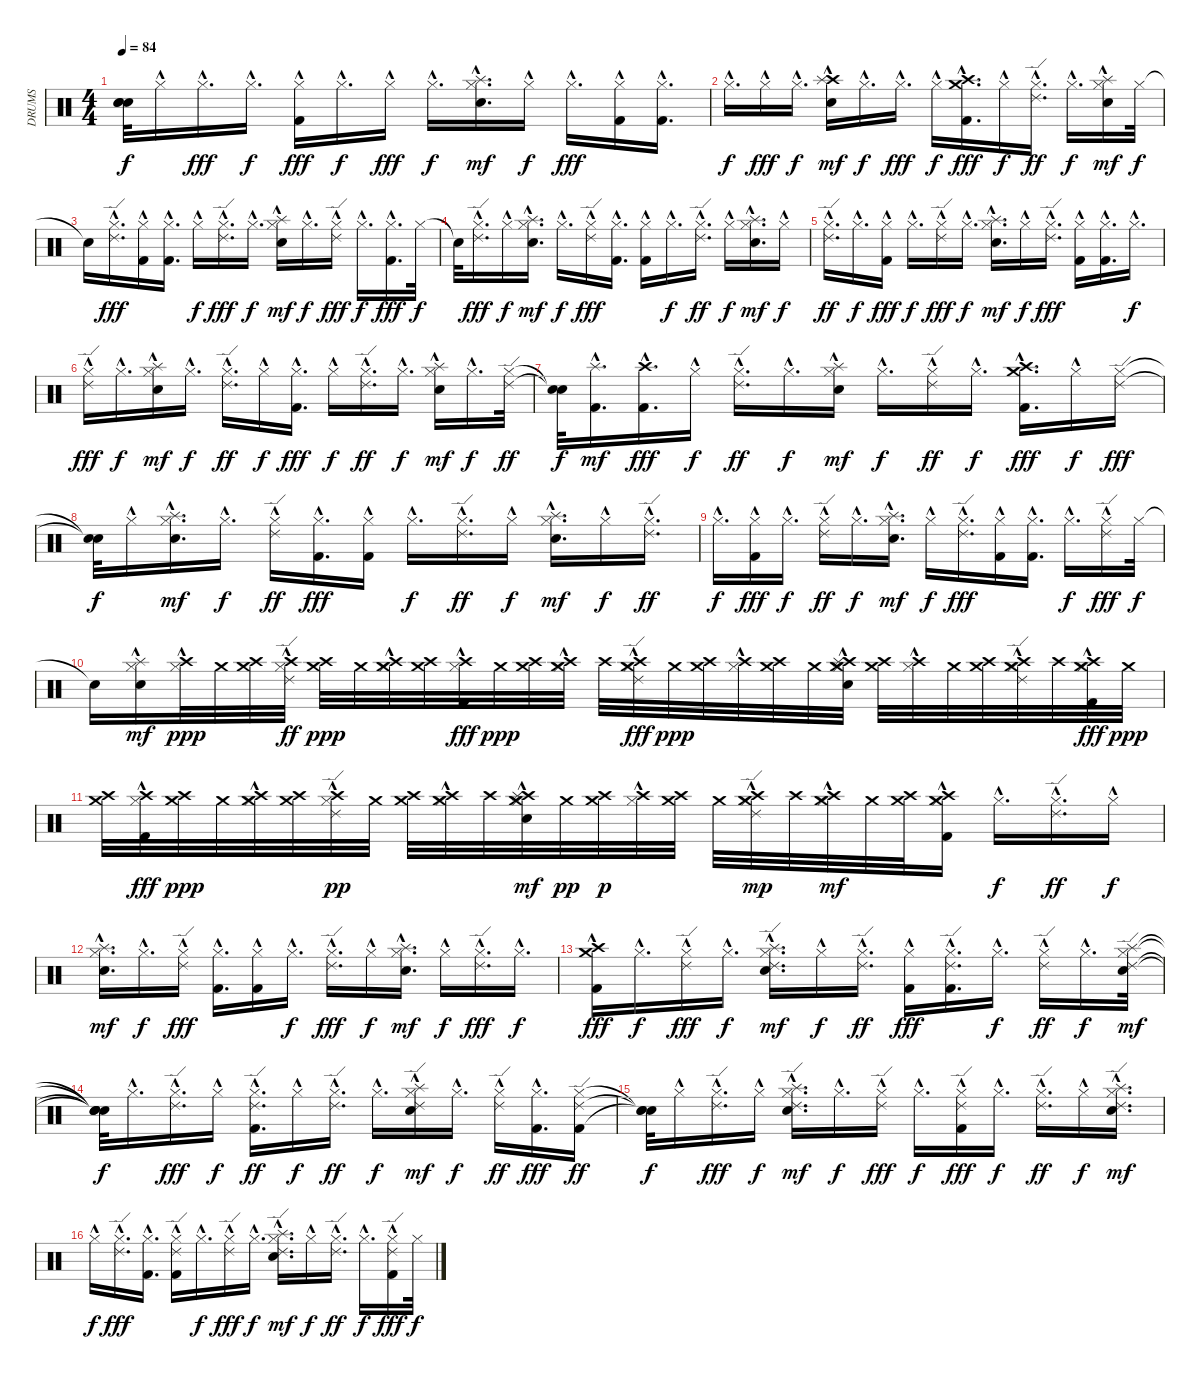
\track ("DRUMS" "DRUMS") {instrument percussion}
\staff {score}
\articulation defaults
\ts (4 4)
\tempo 84
\clef neutral
\ks c
("Snare (hit)"{t} "Snare (hit)"{t} "Snare (hit)"{t}).32{dy f} "Hi-Hat (closed)"{hac}.16 "Hi-Hat (closed)"{hac}.16{d dy fff} "Hi-Hat (closed)"{hac}.16{d dy f} ("Hi-Hat (closed)"{hac} "Kick (hit) 2"{hac}).16{dy fff} "Hi-Hat (closed)"{hac}.16{d dy f} "Hi-Hat (closed)"{hac}.16{dy fff} "Hi-Hat (closed)"{hac}.16{d dy f} ("Hi-Hat (closed)"{hac} "Snare (hit) 2"{hac} "Splash (hit)"{hac}).16{d dy mf} "Hi-Hat (closed)"{hac}.16{dy f} "Hi-Hat (closed)"{hac}.16{d dy fff} ("Kick (hit) 2"{hac} "Hi-Hat (closed)"{hac}).16 ("Hi-Hat (closed)"{hac} "Kick (hit) 2"{hac}).16{d} |
"Hi-Hat (closed)"{hac}.16{d dy f} "Hi-Hat (closed)"{hac}.16{dy fff} "Hi-Hat (closed)"{hac}.16{d dy f} ("Crash high (hit)" "Snare (hit) 2"{hac} "Splash (hit)"{hac}).16{dy mf} "Hi-Hat (closed)"{hac}.16{d dy f} "Hi-Hat (closed)"{hac}.16{d dy fff} "Hi-Hat (closed)"{hac}.16{dy f} ("Crash medium (hit)" "Crash high (hit)" "Kick (hit) 2"{hac}).16{d dy fff} "Hi-Hat (closed)"{hac}.16{dy f} ("Hi-Hat (closed)"{hac} "Ride (edge) 2"{hac}).16{d dy ff} "Hi-Hat (closed)"{hac}.16{d dy f} ("Snare (hit) 2"{hac} "Hi-Hat (closed)"{hac} "Splash (hit)"{hac}).16{dy mf} "Hi-Hat (closed)".32{dy f} |
"Snare (hit)"{t}.16 ("Ride (edge) 2"{hac} "Hi-Hat (closed)"{hac}).16{d dy fff} ("Hi-Hat (closed)"{hac} "Kick (hit) 2"{hac}).16 ("Hi-Hat (closed)"{hac} "Kick (hit) 2"{hac}).16{d} "Hi-Hat (closed)"{hac}.16{dy f} ("Ride (edge) 2"{hac} "Hi-Hat (closed)"{hac}).16{d dy fff} "Hi-Hat (closed)"{hac}.16{d dy f} ("Snare (hit) 2"{hac} "Hi-Hat (closed)"{hac} "Splash (hit)"{hac}).16{dy mf} "Hi-Hat (closed)"{hac}.16{d dy f} ("Ride (edge) 2"{hac} "Hi-Hat (closed)"{hac}).16{dy fff} "Hi-Hat (closed)"{hac}.16{d dy f} ("Hi-Hat (closed)"{hac} "Kick (hit) 2"{hac}).16{d dy fff} "Hi-Hat (closed)".32{dy f} |
"Snare (hit)"{t}.32 ("Ride (edge) 2"{hac} "Hi-Hat (closed)"{hac}).16{d dy fff} "Hi-Hat (closed)"{hac}.16{dy f} ("Snare (hit) 2"{hac} "Hi-Hat (closed)"{hac} "Splash (hit)"{hac}).16{d dy mf} "Hi-Hat (closed)"{hac}.16{d dy f} ("Ride (edge) 2"{hac} "Hi-Hat (closed)"{hac}).16{dy fff} ("Kick (hit) 2"{hac} "Hi-Hat (closed)"{hac}).16{d} ("Hi-Hat (closed)"{hac} "Kick (hit) 2"{hac}).16 "Hi-Hat (closed)"{hac}.16{d dy f} ("Hi-Hat (closed)"{hac} "Ride (edge) 2"{hac}).16{d dy ff} "Hi-Hat (closed)"{hac}.16{dy f} ("Hi-Hat (closed)"{hac} "Snare (hit) 2"{hac} "Splash (hit)"{hac}).16{d dy mf} "Hi-Hat (closed)"{hac}.16{dy f} |
("Hi-Hat (closed)"{hac} "Ride (edge) 2"{hac}).16{d dy ff} "Hi-Hat (closed)"{hac}.16{d dy f} ("Hi-Hat (closed)"{hac} "Kick (hit) 2"{hac}).16{dy fff} "Hi-Hat (closed)"{hac}.16{d dy f} ("Ride (edge) 2"{hac} "Hi-Hat (closed)"{hac}).16{dy fff} "Hi-Hat (closed)"{hac}.16{d dy f} ("Snare (hit) 2"{hac} "Hi-Hat (closed)"{hac} "Splash (hit)"{hac}).16{d dy mf} "Hi-Hat (closed)"{hac}.16{dy f} ("Ride (edge) 2"{hac} "Hi-Hat (closed)"{hac}).16{d dy fff} ("Hi-Hat (closed)"{hac} "Kick (hit) 2"{hac}).16 ("Hi-Hat (closed)"{hac} "Kick (hit) 2"{hac}).16{d} "Hi-Hat (closed)"{hac}.16{d dy f} |
("Ride (edge) 2"{hac} "Hi-Hat (closed)"{hac}).16{dy fff} "Hi-Hat (closed)"{hac}.16{d dy f} ("Hi-Hat (closed)"{hac} "Snare (hit) 2"{hac} "Splash (hit)"{hac}).16{dy mf} "Hi-Hat (closed)"{hac}.16{d dy f} ("Hi-Hat (closed)"{hac} "Ride (edge) 2"{hac}).16{d dy ff} "Hi-Hat (closed)"{hac}.16{dy f} ("Hi-Hat (closed)"{hac} "Kick (hit) 2"{hac}).16{d dy fff} "Hi-Hat (closed)"{hac}.16{dy f} ("Hi-Hat (closed)"{hac} "Ride (edge) 2"{hac}).16{d dy ff} "Hi-Hat (closed)"{hac}.16{d dy f} ("Hi-Hat (closed)"{hac} "Snare (hit) 2"{hac} "Splash (hit)"{hac}).16{dy mf} "Hi-Hat (closed)"{hac}.16{d dy f} ("Hi-Hat (closed)" "Ride (edge) 2").32{dy ff} |
("Snare (hit)"{t} "Snare (hit)"{t}).32{dy f} ("Kick (hit) 2"{hac} "Splash (hit)"{hac}).16{d dy mf} ("Crash high (hit)"{hac} "Kick (hit) 2"{hac}).16{d dy fff} "Hi-Hat (closed)"{hac}.16{dy f} ("Hi-Hat (closed)"{hac} "Ride (edge) 2"{hac}).16{d dy ff} "Hi-Hat (closed)"{hac}.16{d dy f} ("Snare (hit) 2"{hac} "Hi-Hat (closed)"{hac} "Splash (hit)"{hac}).16{dy mf} "Hi-Hat (closed)"{hac}.16{d dy f} ("Hi-Hat (closed)"{hac} "Ride (edge) 2"{hac}).16{dy ff} "Hi-Hat (closed)"{hac}.16{d dy f} ("Crash high (hit)" "Kick (hit) 2"{hac} "Crash medium (hit)").16{d dy fff} "Hi-Hat (closed)"{hac}.16{dy f} ("Ride (edge) 2" "Hi-Hat (closed)").16{dy fff} |
("Snare (hit)"{t} "Snare (hit)"{t}).32{dy f} "Hi-Hat (closed)"{hac}.16 ("Snare (hit) 2"{hac} "Hi-Hat (closed)"{hac} "Splash (hit)"{hac}).16{d dy mf} "Hi-Hat (closed)"{hac}.16{d dy f} ("Hi-Hat (closed)"{hac} "Ride (edge) 2"{hac}).16{dy ff} ("Kick (hit) 2"{hac} "Hi-Hat (closed)"{hac}).16{d dy fff} ("Kick (hit) 2"{hac} "Hi-Hat (closed)"{hac}).16 "Hi-Hat (closed)"{hac}.16{d dy f} ("Hi-Hat (closed)"{hac} "Ride (edge) 2"{hac}).16{d dy ff} "Hi-Hat (closed)"{hac}.16{dy f} ("Hi-Hat (closed)"{hac} "Snare (hit) 2"{hac} "Splash (hit)"{hac}).16{d dy mf} "Hi-Hat (closed)"{hac}.16{dy f} ("Hi-Hat (closed)"{hac} "Ride (edge) 2"{hac}).16{d dy ff} |
"Hi-Hat (closed)"{hac}.16{d dy f} ("Hi-Hat (closed)"{hac} "Kick (hit) 2"{hac}).16{dy fff} "Hi-Hat (closed)"{hac}.16{d dy f} ("Hi-Hat (closed)"{hac} "Ride (edge) 2"{hac}).16{dy ff} "Hi-Hat (closed)"{hac}.16{d dy f} ("Hi-Hat (closed)"{hac} "Snare (hit) 2"{hac} "Splash (hit)"{hac}).16{d dy mf} "Hi-Hat (closed)"{hac}.16{dy f} ("Ride (edge) 2"{hac} "Hi-Hat (closed)"{hac}).16{d dy fff} ("Hi-Hat (closed)"{hac} "Kick (hit) 2"{hac}).16 ("Kick (hit) 2"{hac} "Hi-Hat (closed)"{hac}).16{d} "Hi-Hat (closed)"{hac}.16{d dy f} ("Ride (edge) 2"{hac} "Hi-Hat (closed)"{hac}).16{dy fff} "Hi-Hat (closed)".32{dy f} |
"Snare (hit)"{t}.16 ("Hi-Hat (closed)"{hac} "Snare (hit) 2"{hac} "Splash (hit)"{hac}).16{dy mf} ("Hi-Hat (closed)"{hac} "Crash high (hit)").32{dy ppp} "Crash medium (hit)".32 ("Crash high (hit)" "Crash medium (hit)").32 ("Crash high (hit)" "Hi-Hat (closed)"{hac} "Ride (edge) 2"{hac}).32{dy ff} ("Crash medium (hit)" "Crash high (hit)").32{dy ppp} "Crash medium (hit)".32 ("Crash high (hit)" "Hi-Hat (closed)"{hac} "Crash medium (hit)").32 ("Crash high (hit)" "Crash medium (hit)").32 ("Crash high (hit)" "Kick (hit) 2"{hac} "Hi-Hat (closed)"{hac}).32{dy fff} "Crash medium (hit)".32{dy ppp} ("Crash high (hit)" "Crash medium (hit)").32 ("Crash high (hit)" "Hi-Hat (closed)"{hac} "Crash medium (hit)").32 "Crash high (hit)".32 ("Crash medium (hit)" "Ride (edge) 2"{hac} "Crash high (hit)" "Hi-Hat (closed)"{hac}).32{dy fff} "Crash medium (hit)".32{dy ppp} ("Crash high (hit)" "Crash medium (hit)").32 ("Hi-Hat (closed)"{hac} "Crash high (hit)").32 ("Crash medium (hit)" "Crash high (hit)").32 "Crash medium (hit)".32 ("Snare (hit) 2"{hac} "Hi-Hat (closed)"{hac} "Crash high (hit)" "Splash (hit)"{hac} "Crash medium (hit)").32 ("Crash high (hit)" "Crash medium (hit)").32 ("Crash high (hit)" "Hi-Hat (closed)"{hac}).32 "Crash medium (hit)".32 ("Crash high (hit)" "Crash medium (hit)").32 ("Crash high (hit)" "Ride (edge) 2"{hac} "Hi-Hat (closed)"{hac} "Crash medium (hit)").32 "Crash high (hit)".32 ("Crash medium (hit)" "Crash high (hit)" "Kick (hit) 2"{hac} "Hi-Hat (closed)"{hac}).32{dy fff} "Crash medium (hit)".32{dy ppp} |
("Crash high (hit)" "Crash medium (hit)").32 ("Kick (hit) 2"{hac} "Crash high (hit)" "Hi-Hat (closed)"{hac}).32{dy fff} ("Crash medium (hit)" "Crash high (hit)").32{dy ppp} "Crash medium (hit)".32 ("Hi-Hat (closed)"{hac} "Crash high (hit)" "Crash medium (hit)").32 ("Crash high (hit)" "Crash medium (hit)").32 ("Ride (edge) 2"{hac} "Hi-Hat (closed)"{hac} "Crash high (hit)").32{dy pp} "Crash medium (hit)".32 ("Crash high (hit)" "Crash medium (hit)").32 ("Crash high (hit)" "Hi-Hat (closed)"{hac} "Crash medium (hit)").32 "Crash high (hit)".32 ("Crash medium (hit)" "Snare (hit) 2"{hac} "Hi-Hat (closed)"{hac} "Crash high (hit)" "Splash (hit)"{hac}).32{dy mf} "Crash medium (hit)".32{dy pp} ("Crash high (hit)" "Crash medium (hit)").32{dy p} ("Crash high (hit)" "Hi-Hat (closed)"{hac}).32 ("Crash medium (hit)" "Crash high (hit)").32 "Crash medium (hit)".32 ("Hi-Hat (closed)"{hac} "Ride (edge) 2"{hac} "Crash high (hit)" "Crash medium (hit)").32{dy mp} "Crash high (hit)".32 ("Crash medium (hit)" "Crash high (hit)" "Hi-Hat (closed)"{hac}).32{dy mf} "Crash medium (hit)".32 ("Crash high (hit)" "Crash medium (hit)").32 ("Hi-Hat (closed)"{hac} "Kick (hit) 2"{hac} "Crash high (hit)" "Crash medium (hit)"{hac}).16 "Hi-Hat (closed)"{hac}.16{d dy f} ("Hi-Hat (closed)"{hac} "Ride (edge) 2"{hac}).16{d dy ff} "Hi-Hat (closed)"{hac}.16{dy f} |
("Hi-Hat (closed)"{hac} "Snare (hit) 2"{hac} "Splash (hit)"{hac}).16{d dy mf} "Hi-Hat (closed)"{hac}.16{d dy f} ("Ride (edge) 2"{hac} "Hi-Hat (closed)"{hac}).16{dy fff} ("Hi-Hat (closed)"{hac} "Kick (hit) 2"{hac}).16{d} ("Hi-Hat (closed)"{hac} "Kick (hit) 2"{hac}).16 "Hi-Hat (closed)"{hac}.16{d dy f} ("Ride (edge) 2"{hac} "Hi-Hat (closed)"{hac}).16{d dy fff} "Hi-Hat (closed)"{hac}.16{dy f} ("Hi-Hat (closed)"{hac} "Snare (hit) 2"{hac} "Splash (hit)"{hac}).16{d dy mf} "Hi-Hat (closed)"{hac}.16{dy f} ("Ride (edge) 2"{hac} "Hi-Hat (closed)"{hac}).16{d dy fff} "Hi-Hat (closed)"{hac}.16{d dy f} |
("Crash high (hit)" "Crash medium (hit)" "Kick (hit) 2"{hac}).16{dy fff} "Hi-Hat (closed)"{hac}.16{d dy f} ("Ride (edge) 2"{hac} "Hi-Hat (closed)"{hac}).16{dy fff} "Hi-Hat (closed)"{hac}.16{d dy f} ("Ride (edge) 2"{hac} "Snare (hit) 2"{hac} "Hi-Hat (closed)"{hac} "Splash (hit)"{hac}).16{d dy mf} "Hi-Hat (closed)"{hac}.16{dy f} ("Hi-Hat (closed)"{hac} "Ride (edge) 2"{hac}).16{d dy ff} ("Hi-Hat (closed)"{hac} "Kick (hit) 2"{hac}).16{dy fff} ("Ride (edge) 2"{hac} "Kick (hit) 2"{hac} "Hi-Hat (closed)"{hac}).16{d} "Hi-Hat (closed)"{hac}.16{d dy f} ("Hi-Hat (closed)"{hac} "Ride (edge) 2"{hac}).16{dy ff} "Hi-Hat (closed)"{hac}.16{d dy f} ("Snare (hit) 2" "Hi-Hat (closed)" "Ride (edge) 2" "Splash (hit)").32{dy mf} |
("Snare (hit)"{t} "Snare (hit)"{t} "Snare (hit)"{t} "Snare (hit)"{t}).32{dy f} "Hi-Hat (closed)"{hac}.16{d} ("Ride (edge) 2"{hac} "Hi-Hat (closed)"{hac}).16{d dy fff} "Hi-Hat (closed)"{hac}.16{dy f} ("Hi-Hat (closed)"{hac} "Kick (hit) 2"{hac} "Ride (edge) 2"{hac}).16{d dy ff} "Hi-Hat (closed)"{hac}.16{dy f} ("Hi-Hat (closed)"{hac} "Ride (edge) 2"{hac}).16{d dy ff} "Hi-Hat (closed)"{hac}.16{d dy f} ("Snare (hit) 2"{hac} "Hi-Hat (closed)"{hac} "Ride (edge) 2"{hac} "Splash (hit)"{hac}).16{dy mf} "Hi-Hat (closed)"{hac}.16{d dy f} ("Hi-Hat (closed)"{hac} "Ride (edge) 2"{hac}).16{dy ff} ("Hi-Hat (closed)"{hac} "Kick (hit) 2"{hac}).16{d dy fff} ("Kick (hit) 2" "Hi-Hat (closed)" "Ride (edge) 2").16{dy ff} |
("Snare (hit)"{t} "Snare (hit)"{t} "Snare (hit)"{t}).32{dy f} "Hi-Hat (closed)"{hac}.16 ("Ride (edge) 2"{hac} "Hi-Hat (closed)"{hac}).16{d dy fff} "Hi-Hat (closed)"{hac}.16{dy f} ("Hi-Hat (closed)"{hac} "Ride (edge) 2"{hac} "Snare (hit) 2"{hac} "Splash (hit)"{hac}).16{d dy mf} "Hi-Hat (closed)"{hac}.16{d dy f} ("Ride (edge) 2"{hac} "Hi-Hat (closed)"{hac}).16{dy fff} "Hi-Hat (closed)"{hac}.16{d dy f} ("Kick (hit) 2"{hac} "Ride (edge) 2"{hac} "Hi-Hat (closed)"{hac}).16{dy fff} "Hi-Hat (closed)"{hac}.16{d dy f} ("Hi-Hat (closed)"{hac} "Ride (edge) 2"{hac}).16{d dy ff} "Hi-Hat (closed)"{hac}.16{dy f} ("Hi-Hat (closed)"{hac} "Ride (edge) 2"{hac} "Snare (hit) 2"{hac} "Splash (hit)"{hac}).16{d dy mf} |
"Hi-Hat (closed)"{hac}.16{dy f} ("Ride (edge) 2"{hac} "Hi-Hat (closed)"{hac}).16{d dy fff} ("Kick (hit) 2"{hac} "Hi-Hat (closed)"{hac}).16{d} ("Hi-Hat (closed)"{hac} "Ride (edge) 2"{hac} "Kick (hit) 2"{hac}).16 "Hi-Hat (closed)"{hac}.16{d dy f} ("Ride (edge) 2"{hac} "Hi-Hat (closed)"{hac}).16{dy fff} "Hi-Hat (closed)"{hac}.16{d dy f} ("Snare (hit) 2"{hac} "Ride (edge) 2"{hac} "Hi-Hat (closed)"{hac} "Splash (hit)"{hac}).16{d dy mf} "Hi-Hat (closed)"{hac}.16{dy f} ("Hi-Hat (closed)"{hac} "Ride (edge) 2"{hac}).16{d dy ff} "Hi-Hat (closed)"{hac}.16{d dy f} ("Ride (edge) 2"{hac} "Hi-Hat (closed)"{hac} "Kick (hit) 2"{hac}).16{dy fff} "Hi-Hat (closed)".32{dy f}
